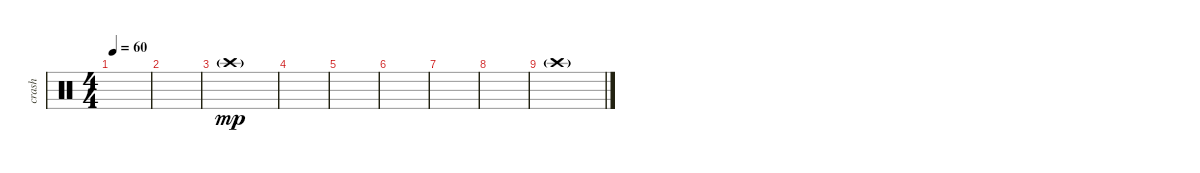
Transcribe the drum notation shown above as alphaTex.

\track ("crash" "crash") {instrument percussion}
\staff {score}
\articulation defaults
\ts (4 4)
\tempo 60
\clef neutral
\ks c
|
|
"Crash high (hit)"{g}.1{dy mp} |
|
|
|
|
|
"Crash high (hit)"{g}.1
